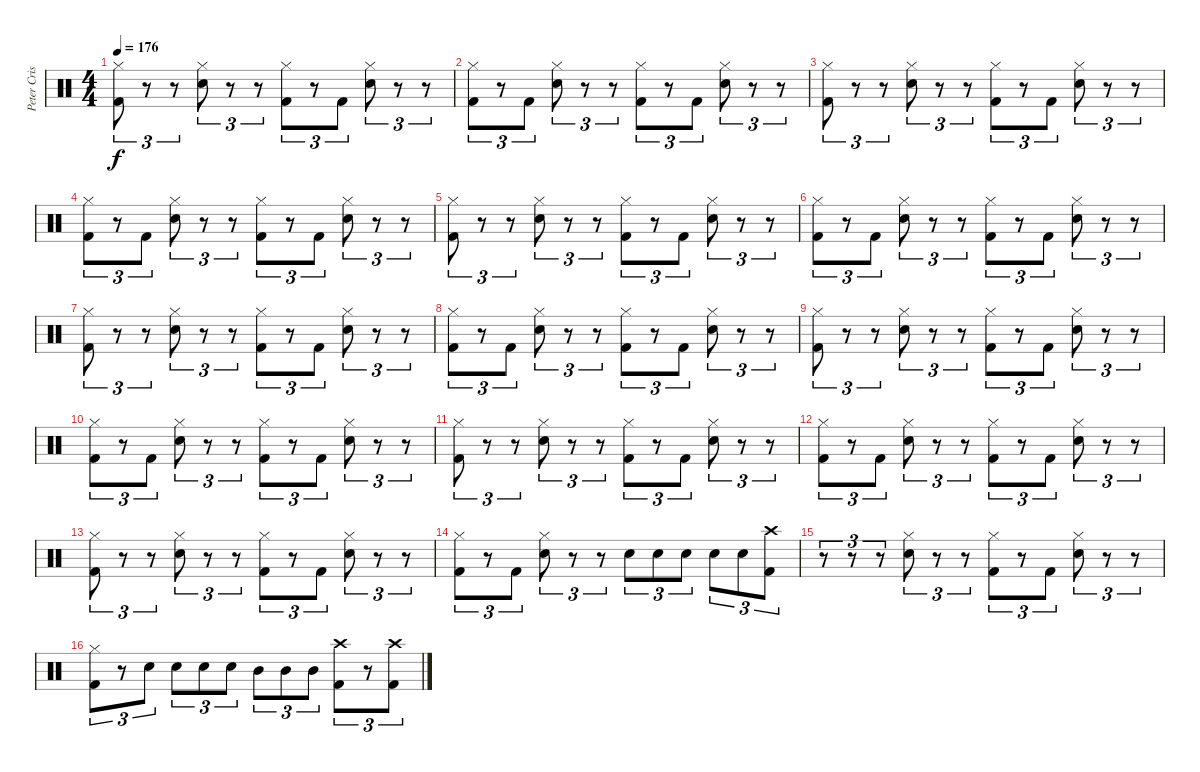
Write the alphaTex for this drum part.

\track ("Peter Criss" "Peter Cris") {instrument percussion}
\staff {score}
\articulation defaults
\ts (4 4)
\tempo 176
\clef neutral
\ks c
("Hi-Hat (closed)" "Kick (hit) 2").8{tu (3 2) dy f} r.8{tu (3 2)} r.8{tu (3 2)} ("Hi-Hat (closed)" "Electric Snare (hit)").8{tu (3 2)} r.8{tu (3 2)} r.8{tu (3 2)} ("Hi-Hat (closed)" "Kick (hit) 2").8{tu (3 2)} r.8{tu (3 2)} "Kick (hit) 2".8{tu (3 2)} ("Hi-Hat (closed)" "Electric Snare (hit)").8{tu (3 2)} r.8{tu (3 2)} r.8{tu (3 2)} |
("Hi-Hat (closed)" "Kick (hit) 2").8{tu (3 2)} r.8{tu (3 2)} "Kick (hit) 2".8{tu (3 2)} ("Hi-Hat (closed)" "Electric Snare (hit)").8{tu (3 2)} r.8{tu (3 2)} r.8{tu (3 2)} ("Hi-Hat (closed)" "Kick (hit) 2").8{tu (3 2)} r.8{tu (3 2)} "Kick (hit) 2".8{tu (3 2)} ("Hi-Hat (closed)" "Electric Snare (hit)").8{tu (3 2)} r.8{tu (3 2)} r.8{tu (3 2)} |
("Hi-Hat (closed)" "Kick (hit) 2").8{tu (3 2)} r.8{tu (3 2)} r.8{tu (3 2)} ("Hi-Hat (closed)" "Electric Snare (hit)").8{tu (3 2)} r.8{tu (3 2)} r.8{tu (3 2)} ("Hi-Hat (closed)" "Kick (hit) 2").8{tu (3 2)} r.8{tu (3 2)} "Kick (hit) 2".8{tu (3 2)} ("Hi-Hat (closed)" "Electric Snare (hit)").8{tu (3 2)} r.8{tu (3 2)} r.8{tu (3 2)} |
("Hi-Hat (closed)" "Kick (hit) 2").8{tu (3 2)} r.8{tu (3 2)} "Kick (hit) 2".8{tu (3 2)} ("Hi-Hat (closed)" "Electric Snare (hit)").8{tu (3 2)} r.8{tu (3 2)} r.8{tu (3 2)} ("Hi-Hat (closed)" "Kick (hit) 2").8{tu (3 2)} r.8{tu (3 2)} "Kick (hit) 2".8{tu (3 2)} ("Hi-Hat (closed)" "Electric Snare (hit)").8{tu (3 2)} r.8{tu (3 2)} r.8{tu (3 2)} |
("Hi-Hat (closed)" "Kick (hit) 2").8{tu (3 2)} r.8{tu (3 2)} r.8{tu (3 2)} ("Hi-Hat (closed)" "Electric Snare (hit)").8{tu (3 2)} r.8{tu (3 2)} r.8{tu (3 2)} ("Hi-Hat (closed)" "Kick (hit) 2").8{tu (3 2)} r.8{tu (3 2)} "Kick (hit) 2".8{tu (3 2)} ("Hi-Hat (closed)" "Electric Snare (hit)").8{tu (3 2)} r.8{tu (3 2)} r.8{tu (3 2)} |
("Hi-Hat (closed)" "Kick (hit) 2").8{tu (3 2)} r.8{tu (3 2)} "Kick (hit) 2".8{tu (3 2)} ("Hi-Hat (closed)" "Electric Snare (hit)").8{tu (3 2)} r.8{tu (3 2)} r.8{tu (3 2)} ("Hi-Hat (closed)" "Kick (hit) 2").8{tu (3 2)} r.8{tu (3 2)} "Kick (hit) 2".8{tu (3 2)} ("Hi-Hat (closed)" "Electric Snare (hit)").8{tu (3 2)} r.8{tu (3 2)} r.8{tu (3 2)} |
("Hi-Hat (closed)" "Kick (hit) 2").8{tu (3 2)} r.8{tu (3 2)} r.8{tu (3 2)} ("Hi-Hat (closed)" "Electric Snare (hit)").8{tu (3 2)} r.8{tu (3 2)} r.8{tu (3 2)} ("Hi-Hat (closed)" "Kick (hit) 2").8{tu (3 2)} r.8{tu (3 2)} "Kick (hit) 2".8{tu (3 2)} ("Hi-Hat (closed)" "Electric Snare (hit)").8{tu (3 2)} r.8{tu (3 2)} r.8{tu (3 2)} |
("Hi-Hat (closed)" "Kick (hit) 2").8{tu (3 2)} r.8{tu (3 2)} "Kick (hit) 2".8{tu (3 2)} ("Hi-Hat (closed)" "Electric Snare (hit)").8{tu (3 2)} r.8{tu (3 2)} r.8{tu (3 2)} ("Hi-Hat (closed)" "Kick (hit) 2").8{tu (3 2)} r.8{tu (3 2)} "Kick (hit) 2".8{tu (3 2)} ("Hi-Hat (closed)" "Electric Snare (hit)").8{tu (3 2)} r.8{tu (3 2)} r.8{tu (3 2)} |
("Hi-Hat (closed)" "Kick (hit) 2").8{tu (3 2)} r.8{tu (3 2)} r.8{tu (3 2)} ("Hi-Hat (closed)" "Electric Snare (hit)").8{tu (3 2)} r.8{tu (3 2)} r.8{tu (3 2)} ("Hi-Hat (closed)" "Kick (hit) 2").8{tu (3 2)} r.8{tu (3 2)} "Kick (hit) 2".8{tu (3 2)} ("Hi-Hat (closed)" "Electric Snare (hit)").8{tu (3 2)} r.8{tu (3 2)} r.8{tu (3 2)} |
("Hi-Hat (closed)" "Kick (hit) 2").8{tu (3 2)} r.8{tu (3 2)} "Kick (hit) 2".8{tu (3 2)} ("Hi-Hat (closed)" "Electric Snare (hit)").8{tu (3 2)} r.8{tu (3 2)} r.8{tu (3 2)} ("Hi-Hat (closed)" "Kick (hit) 2").8{tu (3 2)} r.8{tu (3 2)} "Kick (hit) 2".8{tu (3 2)} ("Hi-Hat (closed)" "Electric Snare (hit)").8{tu (3 2)} r.8{tu (3 2)} r.8{tu (3 2)} |
("Hi-Hat (closed)" "Kick (hit) 2").8{tu (3 2)} r.8{tu (3 2)} r.8{tu (3 2)} ("Hi-Hat (closed)" "Electric Snare (hit)").8{tu (3 2)} r.8{tu (3 2)} r.8{tu (3 2)} ("Hi-Hat (closed)" "Kick (hit) 2").8{tu (3 2)} r.8{tu (3 2)} "Kick (hit) 2".8{tu (3 2)} ("Hi-Hat (closed)" "Electric Snare (hit)").8{tu (3 2)} r.8{tu (3 2)} r.8{tu (3 2)} |
("Hi-Hat (closed)" "Kick (hit) 2").8{tu (3 2)} r.8{tu (3 2)} "Kick (hit) 2".8{tu (3 2)} ("Hi-Hat (closed)" "Electric Snare (hit)").8{tu (3 2)} r.8{tu (3 2)} r.8{tu (3 2)} ("Hi-Hat (closed)" "Kick (hit) 2").8{tu (3 2)} r.8{tu (3 2)} "Kick (hit) 2".8{tu (3 2)} ("Hi-Hat (closed)" "Electric Snare (hit)").8{tu (3 2)} r.8{tu (3 2)} r.8{tu (3 2)} |
("Hi-Hat (closed)" "Kick (hit) 2").8{tu (3 2)} r.8{tu (3 2)} r.8{tu (3 2)} ("Hi-Hat (closed)" "Electric Snare (hit)").8{tu (3 2)} r.8{tu (3 2)} r.8{tu (3 2)} ("Hi-Hat (closed)" "Kick (hit) 2").8{tu (3 2)} r.8{tu (3 2)} "Kick (hit) 2".8{tu (3 2)} ("Hi-Hat (closed)" "Electric Snare (hit)").8{tu (3 2)} r.8{tu (3 2)} r.8{tu (3 2)} |
("Hi-Hat (closed)" "Kick (hit) 2").8{tu (3 2)} r.8{tu (3 2)} "Kick (hit) 2".8{tu (3 2)} ("Hi-Hat (closed)" "Electric Snare (hit)").8{tu (3 2)} r.8{tu (3 2)} r.8{tu (3 2)} "Electric Snare (hit)".8{tu (3 2)} "Electric Snare (hit)".8{tu (3 2)} "Electric Snare (hit)".8{tu (3 2)} "Electric Snare (hit)".8{tu (3 2)} "Electric Snare (hit)".8{tu (3 2)} ("Crash high (hit)" "Kick (hit) 2").8{tu (3 2)} |
r.8{tu (3 2)} r.8{tu (3 2)} r.8{tu (3 2)} ("Hi-Hat (closed)" "Electric Snare (hit)").8{tu (3 2)} r.8{tu (3 2)} r.8{tu (3 2)} ("Hi-Hat (closed)" "Kick (hit) 2").8{tu (3 2)} r.8{tu (3 2)} "Kick (hit) 2".8{tu (3 2)} ("Hi-Hat (closed)" "Electric Snare (hit)").8{tu (3 2)} r.8{tu (3 2)} r.8{tu (3 2)} |
("Hi-Hat (closed)" "Kick (hit) 2").8{tu (3 2)} r.8{tu (3 2)} "Electric Snare (hit)".8{tu (3 2)} "Electric Snare (hit)".8{tu (3 2)} "Electric Snare (hit)".8{tu (3 2)} "Electric Snare (hit)".8{tu (3 2)} "Mid Tom (hit)".8{tu (3 2)} "Mid Tom (hit)".8{tu (3 2)} "Mid Tom (hit)".8{tu (3 2)} ("Crash high (hit)" "Kick (hit) 2").8{tu (3 2)} r.8{tu (3 2)} ("Crash high (hit)" "Kick (hit) 2").8{tu (3 2)}
